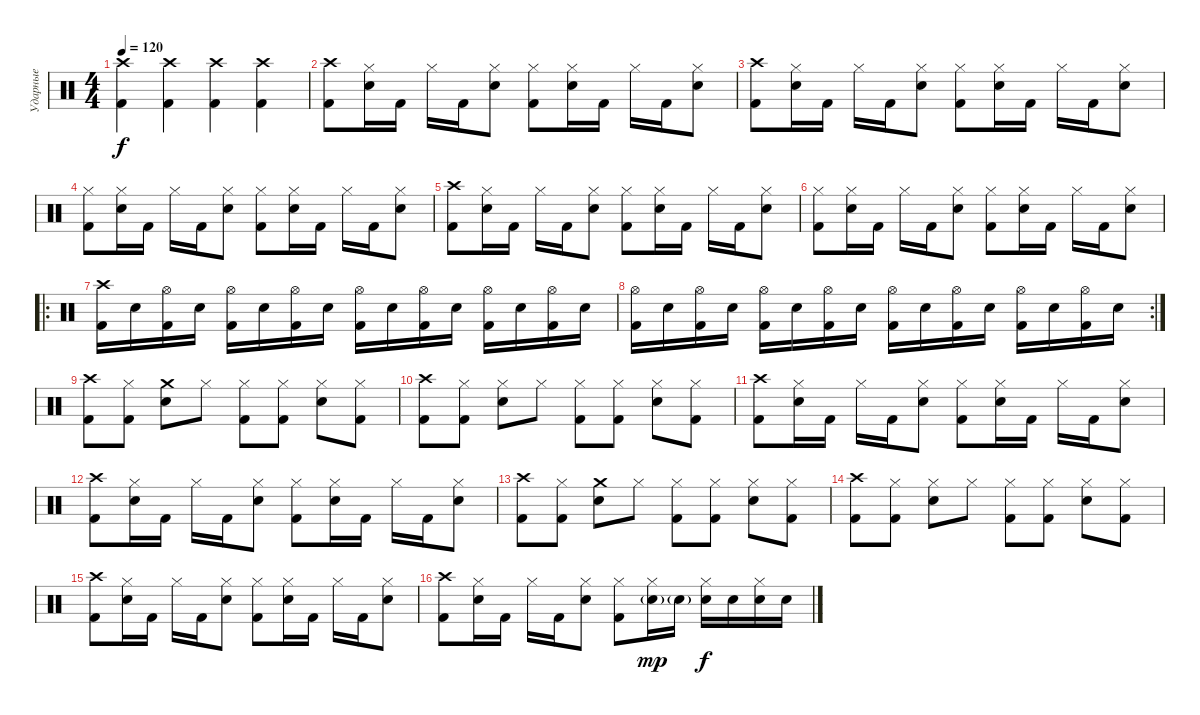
\track ("Ударные" "Ударные") {instrument percussion}
\staff {score}
\articulation defaults
\ts (4 4)
\tempo 120
\clef neutral
\ks c
("Kick (hit) 2" "Crash high (hit)").4{dy f} ("Kick (hit) 2" "Crash high (hit)").4 ("Kick (hit) 2" "Crash high (hit)").4 ("Kick (hit) 2" "Crash high (hit)").4 |
("Kick (hit) 2" "Crash high (hit)").8 ("Electric Snare (hit)" "Hi-Hat (closed)").16 "Kick (hit) 2".16 "Hi-Hat (closed)".16 "Kick (hit) 2".16 ("Electric Snare (hit)" "Hi-Hat (closed)").8 ("Kick (hit) 2" "Hi-Hat (closed)").8 ("Electric Snare (hit)" "Hi-Hat (closed)").16 "Kick (hit) 2".16 "Hi-Hat (closed)".16 "Kick (hit) 2".16 ("Electric Snare (hit)" "Hi-Hat (closed)").8 |
("Kick (hit) 2" "Crash high (hit)").8 ("Electric Snare (hit)" "Hi-Hat (closed)").16 "Kick (hit) 2".16 "Hi-Hat (closed)".16 "Kick (hit) 2".16 ("Electric Snare (hit)" "Hi-Hat (closed)").8 ("Kick (hit) 2" "Hi-Hat (closed)").8 ("Electric Snare (hit)" "Hi-Hat (closed)").16 "Kick (hit) 2".16 "Hi-Hat (closed)".16 "Kick (hit) 2".16 ("Electric Snare (hit)" "Hi-Hat (closed)").8 |
("Kick (hit) 2" "Hi-Hat (closed)").8 ("Electric Snare (hit)" "Hi-Hat (closed)").16 "Kick (hit) 2".16 "Hi-Hat (closed)".16 "Kick (hit) 2".16 ("Electric Snare (hit)" "Hi-Hat (closed)").8 ("Kick (hit) 2" "Hi-Hat (closed)").8 ("Electric Snare (hit)" "Hi-Hat (closed)").16 "Kick (hit) 2".16 "Hi-Hat (closed)".16 "Kick (hit) 2".16 ("Electric Snare (hit)" "Hi-Hat (closed)").8 |
("Kick (hit) 2" "Crash high (hit)").8 ("Electric Snare (hit)" "Hi-Hat (closed)").16 "Kick (hit) 2".16 "Hi-Hat (closed)".16 "Kick (hit) 2".16 ("Electric Snare (hit)" "Hi-Hat (closed)").8 ("Kick (hit) 2" "Hi-Hat (closed)").8 ("Electric Snare (hit)" "Hi-Hat (closed)").16 "Kick (hit) 2".16 "Hi-Hat (closed)".16 "Kick (hit) 2".16 ("Electric Snare (hit)" "Hi-Hat (closed)").8 |
("Kick (hit) 2" "Hi-Hat (closed)").8 ("Electric Snare (hit)" "Hi-Hat (closed)").16 "Kick (hit) 2".16 "Hi-Hat (closed)".16 "Kick (hit) 2".16 ("Electric Snare (hit)" "Hi-Hat (closed)").8 ("Kick (hit) 2" "Hi-Hat (closed)").8 ("Electric Snare (hit)" "Hi-Hat (closed)").16 "Kick (hit) 2".16 "Hi-Hat (closed)".16 "Kick (hit) 2".16 ("Electric Snare (hit)" "Hi-Hat (closed)").8 |
\ro
("Kick (hit) 2" "Crash high (hit)").16 "Electric Snare (hit)".16 ("Kick (hit) 2" "Hi-Hat (open)").16 "Electric Snare (hit)".16 ("Kick (hit) 2" "Hi-Hat (open)").16 "Electric Snare (hit)".16 ("Kick (hit) 2" "Hi-Hat (open)").16 "Electric Snare (hit)".16 ("Kick (hit) 2" "Hi-Hat (open)").16 "Electric Snare (hit)".16 ("Kick (hit) 2" "Hi-Hat (open)").16 "Electric Snare (hit)".16 ("Kick (hit) 2" "Hi-Hat (open)").16 "Electric Snare (hit)".16 ("Kick (hit) 2" "Hi-Hat (open)").16 "Electric Snare (hit)".16 |
\rc 2
("Kick (hit) 2" "Hi-Hat (open)").16 "Electric Snare (hit)".16 ("Kick (hit) 2" "Hi-Hat (open)").16 "Electric Snare (hit)".16 ("Kick (hit) 2" "Hi-Hat (open)").16 "Electric Snare (hit)".16 ("Kick (hit) 2" "Hi-Hat (open)").16 "Electric Snare (hit)".16 ("Kick (hit) 2" "Hi-Hat (open)").16 "Electric Snare (hit)".16 ("Kick (hit) 2" "Hi-Hat (open)").16 "Electric Snare (hit)".16 ("Kick (hit) 2" "Hi-Hat (open)").16 "Electric Snare (hit)".16 ("Kick (hit) 2" "Hi-Hat (open)").16 "Electric Snare (hit)".16 |
("Kick (hit) 2" "Crash high (hit)").8 ("Kick (hit) 2" "Hi-Hat (closed)").8 ("Electric Snare (hit)" "Crash medium (hit)").8 "Hi-Hat (closed)".8 ("Kick (hit) 2" "Hi-Hat (closed)").8 ("Kick (hit) 2" "Hi-Hat (closed)").8 ("Electric Snare (hit)" "Hi-Hat (closed)").8 ("Kick (hit) 2" "Hi-Hat (closed)").8 |
("Kick (hit) 2" "Crash high (hit)").8 ("Kick (hit) 2" "Hi-Hat (closed)").8 ("Electric Snare (hit)" "Hi-Hat (closed)").8 "Hi-Hat (closed)".8 ("Kick (hit) 2" "Hi-Hat (closed)").8 ("Kick (hit) 2" "Hi-Hat (closed)").8 ("Electric Snare (hit)" "Hi-Hat (closed)").8 ("Kick (hit) 2" "Hi-Hat (closed)").8 |
("Kick (hit) 2" "Crash high (hit)").8 ("Electric Snare (hit)" "Hi-Hat (closed)").16 "Kick (hit) 2".16 "Hi-Hat (closed)".16 "Kick (hit) 2".16 ("Electric Snare (hit)" "Hi-Hat (closed)").8 ("Kick (hit) 2" "Hi-Hat (closed)").8 ("Electric Snare (hit)" "Hi-Hat (closed)").16 "Kick (hit) 2".16 "Hi-Hat (closed)".16 "Kick (hit) 2".16 ("Electric Snare (hit)" "Hi-Hat (closed)").8 |
("Kick (hit) 2" "Crash high (hit)").8 ("Electric Snare (hit)" "Hi-Hat (closed)").16 "Kick (hit) 2".16 "Hi-Hat (closed)".16 "Kick (hit) 2".16 ("Electric Snare (hit)" "Hi-Hat (closed)").8 ("Kick (hit) 2" "Hi-Hat (closed)").8 ("Electric Snare (hit)" "Hi-Hat (closed)").16 "Kick (hit) 2".16 "Hi-Hat (closed)".16 "Kick (hit) 2".16 ("Electric Snare (hit)" "Hi-Hat (closed)").8 |
("Kick (hit) 2" "Crash high (hit)").8 ("Kick (hit) 2" "Hi-Hat (closed)").8 ("Electric Snare (hit)" "Crash medium (hit)").8 "Hi-Hat (closed)".8 ("Kick (hit) 2" "Hi-Hat (closed)").8 ("Kick (hit) 2" "Hi-Hat (closed)").8 ("Electric Snare (hit)" "Hi-Hat (closed)").8 ("Kick (hit) 2" "Hi-Hat (closed)").8 |
("Kick (hit) 2" "Crash high (hit)").8 ("Kick (hit) 2" "Hi-Hat (closed)").8 ("Electric Snare (hit)" "Hi-Hat (closed)").8 "Hi-Hat (closed)".8 ("Kick (hit) 2" "Hi-Hat (closed)").8 ("Kick (hit) 2" "Hi-Hat (closed)").8 ("Electric Snare (hit)" "Hi-Hat (closed)").8 ("Kick (hit) 2" "Hi-Hat (closed)").8 |
("Kick (hit) 2" "Crash high (hit)").8 ("Electric Snare (hit)" "Hi-Hat (closed)").16 "Kick (hit) 2".16 "Hi-Hat (closed)".16 "Kick (hit) 2".16 ("Electric Snare (hit)" "Hi-Hat (closed)").8 ("Kick (hit) 2" "Hi-Hat (closed)").8 ("Electric Snare (hit)" "Hi-Hat (closed)").16 "Kick (hit) 2".16 "Hi-Hat (closed)".16 "Kick (hit) 2".16 ("Electric Snare (hit)" "Hi-Hat (closed)").8 |
("Kick (hit) 2" "Crash high (hit)").8 ("Electric Snare (hit)" "Hi-Hat (closed)").16 "Kick (hit) 2".16 "Hi-Hat (closed)".16 "Kick (hit) 2".16 ("Electric Snare (hit)" "Hi-Hat (closed)").8 ("Kick (hit) 2" "Hi-Hat (closed)").8 ("Electric Snare (hit)"{g} "Hi-Hat (closed)").16{dy mp} "Electric Snare (hit)"{g}.16 ("Electric Snare (hit)" "Hi-Hat (closed)").16{dy f} "Electric Snare (hit)".16 ("Electric Snare (hit)" "Hi-Hat (closed)").16 "Electric Snare (hit)".16
